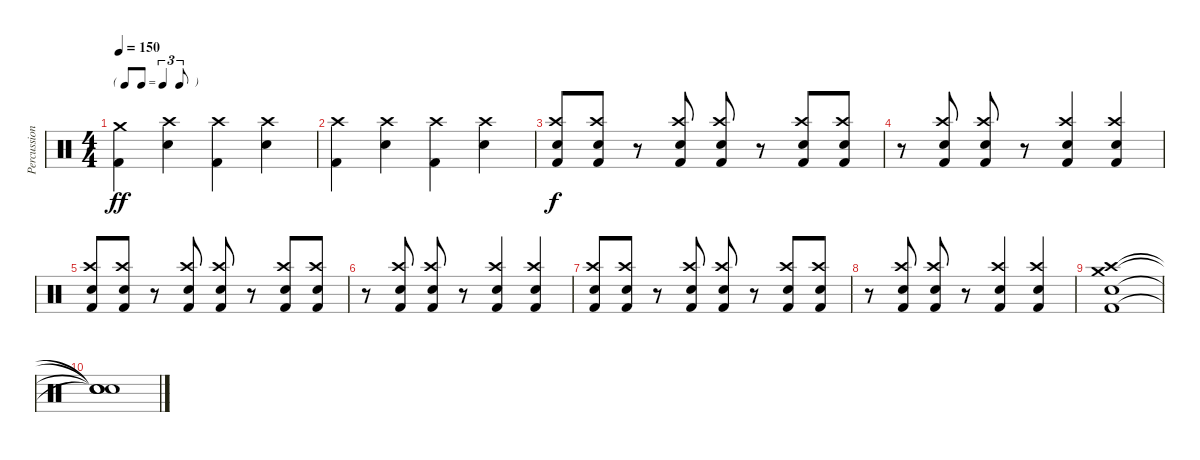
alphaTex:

\track ("Percussion" "Percussion") {instrument percussion}
\staff {score}
\articulation defaults
\ts (4 4)
\tf triplet8th
\tempo 150
\clef neutral
\ks c
("Crash medium (hit)" "Kick (hit) 2").4{dy ff} ("Crash high (hit)" "Electric Snare (hit)").4 ("Crash high (hit)" "Kick (hit) 2").4 ("Crash high (hit)" "Electric Snare (hit)").4 |
("Crash high (hit)" "Kick (hit) 2").4 ("Crash high (hit)" "Electric Snare (hit)").4 ("Crash high (hit)" "Kick (hit) 2").4 ("Crash high (hit)" "Electric Snare (hit)").4 |
("Crash high (hit)" "Electric Snare (hit)" "Kick (hit) 2").8{dy f} ("Crash high (hit)" "Electric Snare (hit)" "Kick (hit) 2").8 r.8 ("Crash high (hit)" "Electric Snare (hit)" "Kick (hit) 2").8 ("Crash high (hit)" "Electric Snare (hit)" "Kick (hit) 2").8 r.8 ("Crash high (hit)" "Electric Snare (hit)" "Kick (hit) 2").8 ("Crash high (hit)" "Electric Snare (hit)" "Kick (hit) 2").8 |
r.8 ("Crash high (hit)" "Electric Snare (hit)" "Kick (hit) 2").8 ("Crash high (hit)" "Electric Snare (hit)" "Kick (hit) 2").8 r.8 ("Crash high (hit)" "Electric Snare (hit)" "Kick (hit) 2").4 ("Crash high (hit)" "Electric Snare (hit)" "Kick (hit) 2").4 |
("Crash high (hit)" "Electric Snare (hit)" "Kick (hit) 2").8 ("Crash high (hit)" "Electric Snare (hit)" "Kick (hit) 2").8 r.8 ("Crash high (hit)" "Electric Snare (hit)" "Kick (hit) 2").8 ("Crash high (hit)" "Electric Snare (hit)" "Kick (hit) 2").8 r.8 ("Crash high (hit)" "Electric Snare (hit)" "Kick (hit) 2").8 ("Crash high (hit)" "Electric Snare (hit)" "Kick (hit) 2").8 |
r.8 ("Crash high (hit)" "Electric Snare (hit)" "Kick (hit) 2").8 ("Crash high (hit)" "Electric Snare (hit)" "Kick (hit) 2").8 r.8 ("Crash high (hit)" "Electric Snare (hit)" "Kick (hit) 2").4 ("Crash high (hit)" "Electric Snare (hit)" "Kick (hit) 2").4 |
("Crash high (hit)" "Electric Snare (hit)" "Kick (hit) 2").8 ("Crash high (hit)" "Electric Snare (hit)" "Kick (hit) 2").8 r.8 ("Crash high (hit)" "Electric Snare (hit)" "Kick (hit) 2").8 ("Crash high (hit)" "Electric Snare (hit)" "Kick (hit) 2").8 r.8 ("Crash high (hit)" "Electric Snare (hit)" "Kick (hit) 2").8 ("Crash high (hit)" "Electric Snare (hit)" "Kick (hit) 2").8 |
r.8 ("Crash high (hit)" "Electric Snare (hit)" "Kick (hit) 2").8 ("Crash high (hit)" "Electric Snare (hit)" "Kick (hit) 2").8 r.8 ("Crash high (hit)" "Electric Snare (hit)" "Kick (hit) 2").4 ("Crash high (hit)" "Electric Snare (hit)" "Kick (hit) 2").4 |
("Crash high (hit)" "Crash medium (hit)" "Electric Snare (hit)" "Kick (hit) 2").1 |
("Snare (hit)"{t} "Snare (hit)"{t} "Snare (hit)"{t} "Snare (hit)"{t}).1
